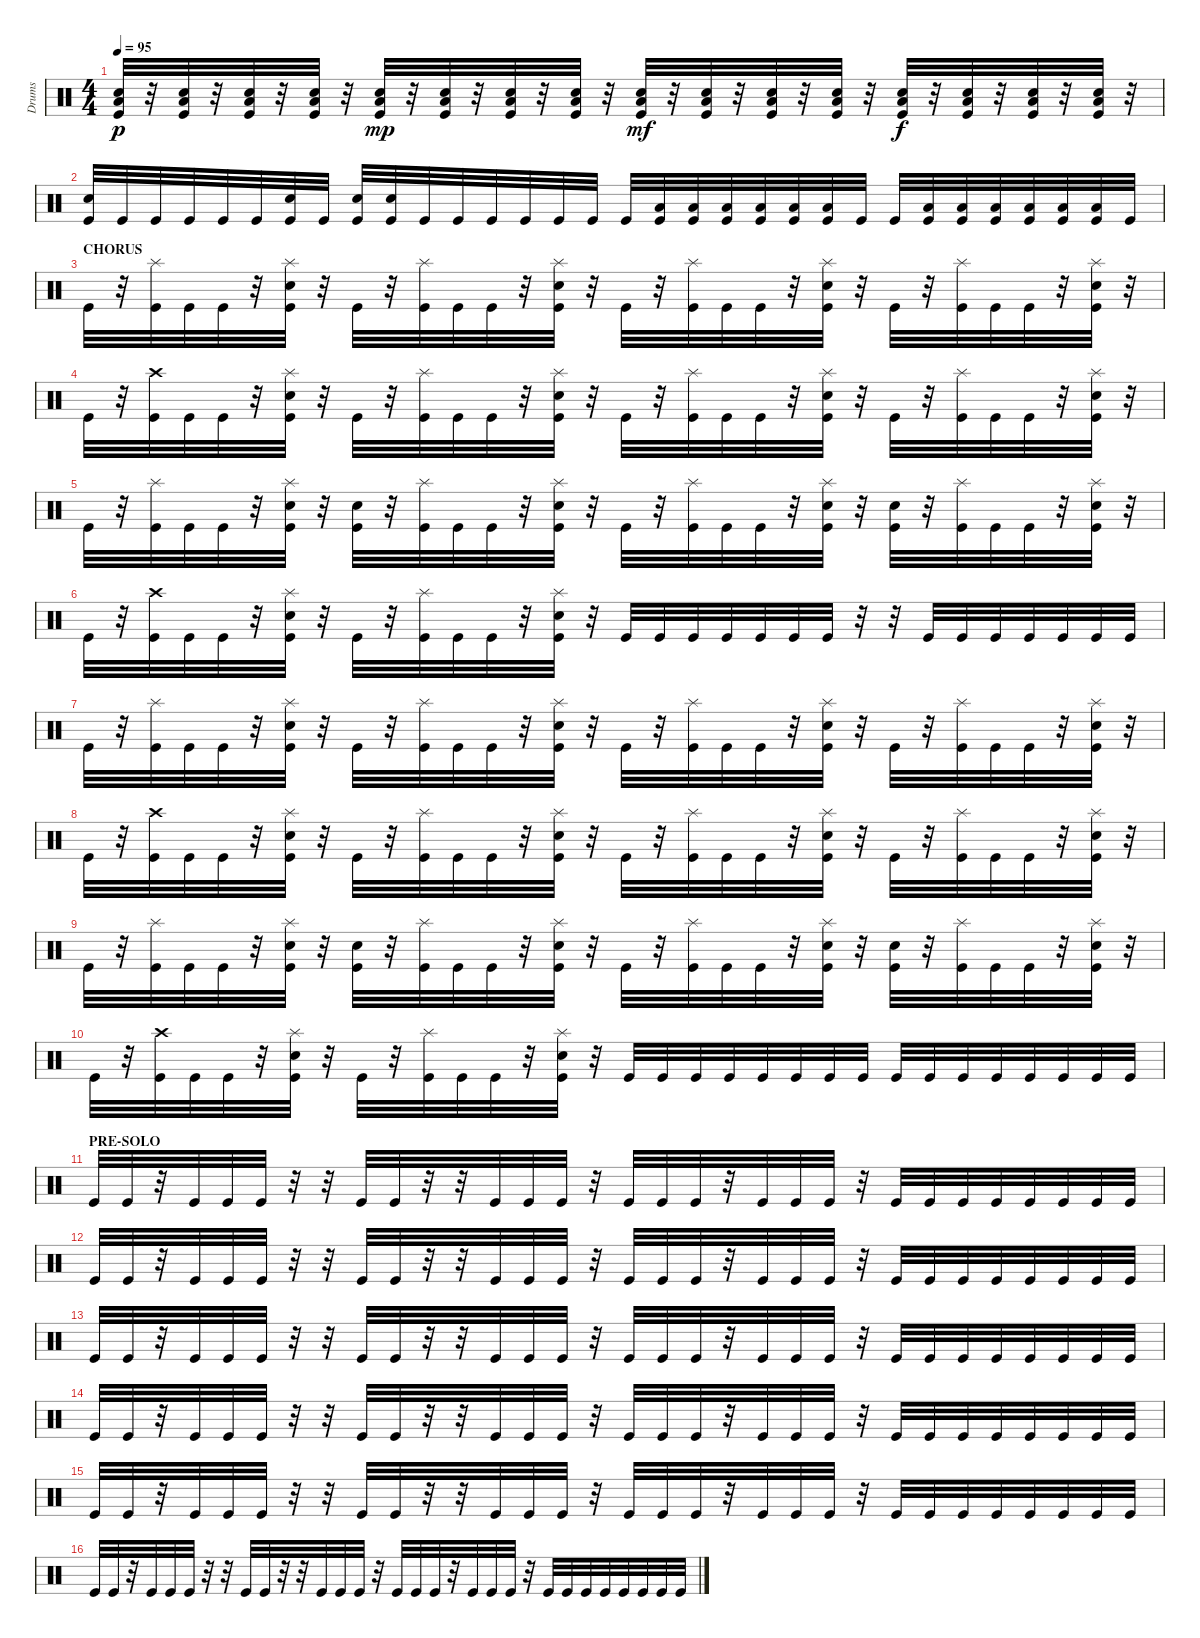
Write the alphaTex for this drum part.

\track ("Drums" "Drums") {instrument percussion}
\staff {score}
\articulation defaults
\ts (4 4)
\tempo 95
\clef neutral
\ks c
("Low Tom (hit)" "Snare (hit) 2" "Kick (hit)").32{dy p} r.32 ("Low Tom (hit)" "Snare (hit) 2" "Kick (hit)").32 r.32 ("Low Tom (hit)" "Snare (hit) 2" "Kick (hit)").32 r.32 ("Low Tom (hit)" "Snare (hit) 2" "Kick (hit)").32 r.32 ("Low Tom (hit)" "Snare (hit) 2" "Kick (hit)").32{dy mp} r.32 ("Low Tom (hit)" "Snare (hit) 2" "Kick (hit)").32 r.32 ("Low Tom (hit)" "Snare (hit) 2" "Kick (hit)").32 r.32 ("Low Tom (hit)" "Snare (hit) 2" "Kick (hit)").32 r.32 ("Low Tom (hit)" "Snare (hit) 2" "Kick (hit)").32{dy mf} r.32 ("Low Tom (hit)" "Snare (hit) 2" "Kick (hit)").32 r.32 ("Low Tom (hit)" "Snare (hit) 2" "Kick (hit)").32 r.32 ("Low Tom (hit)" "Snare (hit) 2" "Kick (hit)").32 r.32 ("Low Tom (hit)" "Snare (hit) 2" "Kick (hit)").32{dy f} r.32 ("Low Tom (hit)" "Snare (hit) 2" "Kick (hit)").32 r.32 ("Low Tom (hit)" "Snare (hit) 2" "Kick (hit)").32 r.32 ("Low Tom (hit)" "Snare (hit) 2" "Kick (hit)").32 r.32 |
("Snare (hit) 2" "Kick (hit)").32 "Kick (hit)".32 "Kick (hit)".32 "Kick (hit)".32 "Kick (hit)".32 "Kick (hit)".32 ("Snare (hit) 2" "Kick (hit)").32 "Kick (hit)".32 ("Snare (hit) 2" "Kick (hit)").32 ("Snare (hit) 2" "Kick (hit)").32 "Kick (hit)".32 "Kick (hit)".32 "Kick (hit)".32 "Kick (hit)".32 "Kick (hit)".32 "Kick (hit)".32 "Kick (hit)".32 ("Low Tom (hit)" "Kick (hit)").32 ("Low Tom (hit)" "Kick (hit)").32 ("Low Tom (hit)" "Kick (hit)").32 ("Low Tom (hit)" "Kick (hit)").32 ("Low Tom (hit)" "Kick (hit)").32 ("Low Tom (hit)" "Kick (hit)").32 "Kick (hit)".32 "Kick (hit)".32 ("Low Tom (hit)" "Kick (hit)").32 ("Low Tom (hit)" "Kick (hit)").32 ("Low Tom (hit)" "Kick (hit)").32 ("Low Tom (hit)" "Kick (hit)").32 ("Low Tom (hit)" "Kick (hit)").32 ("Low Tom (hit)" "Kick (hit)").32 "Kick (hit)".32 |
\section ("" "CHORUS")
"Kick (hit)".32 r.32 ("Splash (hit)" "Kick (hit)").32 "Kick (hit)".32 "Kick (hit)".32 r.32 ("Splash (hit)" "Snare (hit) 2" "Kick (hit)").32 r.32 "Kick (hit)".32 r.32 ("Splash (hit)" "Kick (hit)").32 "Kick (hit)".32 "Kick (hit)".32 r.32 ("Splash (hit)" "Snare (hit) 2" "Kick (hit)").32 r.32 "Kick (hit)".32 r.32 ("Splash (hit)" "Kick (hit)").32 "Kick (hit)".32 "Kick (hit)".32 r.32 ("Splash (hit)" "Snare (hit) 2" "Kick (hit)").32 r.32 "Kick (hit)".32 r.32 ("Splash (hit)" "Kick (hit)").32 "Kick (hit)".32 "Kick (hit)".32 r.32 ("Splash (hit)" "Snare (hit) 2" "Kick (hit)").32 r.32 |
"Kick (hit)".32 r.32 ("Crash high (hit)" "Kick (hit)").32 "Kick (hit)".32 "Kick (hit)".32 r.32 ("Splash (hit)" "Snare (hit) 2" "Kick (hit)").32 r.32 "Kick (hit)".32 r.32 ("Splash (hit)" "Kick (hit)").32 "Kick (hit)".32 "Kick (hit)".32 r.32 ("Splash (hit)" "Snare (hit) 2" "Kick (hit)").32 r.32 "Kick (hit)".32 r.32 ("Splash (hit)" "Kick (hit)").32 "Kick (hit)".32 "Kick (hit)".32 r.32 ("Splash (hit)" "Snare (hit) 2" "Kick (hit)").32 r.32 "Kick (hit)".32 r.32 ("Splash (hit)" "Kick (hit)").32 "Kick (hit)".32 "Kick (hit)".32 r.32 ("Splash (hit)" "Snare (hit) 2" "Kick (hit)").32 r.32 |
"Kick (hit)".32 r.32 ("Splash (hit)" "Kick (hit)").32 "Kick (hit)".32 "Kick (hit)".32 r.32 ("Splash (hit)" "Snare (hit) 2" "Kick (hit)").32 r.32 ("Snare (hit) 2" "Kick (hit)").32 r.32 ("Splash (hit)" "Kick (hit)").32 "Kick (hit)".32 "Kick (hit)".32 r.32 ("Splash (hit)" "Snare (hit) 2" "Kick (hit)").32 r.32 "Kick (hit)".32 r.32 ("Splash (hit)" "Kick (hit)").32 "Kick (hit)".32 "Kick (hit)".32 r.32 ("Splash (hit)" "Snare (hit) 2" "Kick (hit)").32 r.32 ("Snare (hit) 2" "Kick (hit)").32 r.32 ("Splash (hit)" "Kick (hit)").32 "Kick (hit)".32 "Kick (hit)".32 r.32 ("Splash (hit)" "Snare (hit) 2" "Kick (hit)").32 r.32 |
"Kick (hit)".32 r.32 ("Crash high (hit)" "Kick (hit)").32 "Kick (hit)".32 "Kick (hit)".32 r.32 ("Splash (hit)" "Snare (hit) 2" "Kick (hit)").32 r.32 "Kick (hit)".32 r.32 ("Splash (hit)" "Kick (hit)").32 "Kick (hit)".32 "Kick (hit)".32 r.32 ("Splash (hit)" "Snare (hit) 2" "Kick (hit)").32 r.32 "Kick (hit)".32 "Kick (hit)".32 "Kick (hit)".32 "Kick (hit)".32 "Kick (hit)".32 "Kick (hit)".32 "Kick (hit)".32 r.32 r.32 "Kick (hit)".32 "Kick (hit)".32 "Kick (hit)".32 "Kick (hit)".32 "Kick (hit)".32 "Kick (hit)".32 "Kick (hit)".32 |
"Kick (hit)".32 r.32 ("Splash (hit)" "Kick (hit)").32 "Kick (hit)".32 "Kick (hit)".32 r.32 ("Splash (hit)" "Snare (hit) 2" "Kick (hit)").32 r.32 "Kick (hit)".32 r.32 ("Splash (hit)" "Kick (hit)").32 "Kick (hit)".32 "Kick (hit)".32 r.32 ("Splash (hit)" "Snare (hit) 2" "Kick (hit)").32 r.32 "Kick (hit)".32 r.32 ("Splash (hit)" "Kick (hit)").32 "Kick (hit)".32 "Kick (hit)".32 r.32 ("Splash (hit)" "Snare (hit) 2" "Kick (hit)").32 r.32 "Kick (hit)".32 r.32 ("Splash (hit)" "Kick (hit)").32 "Kick (hit)".32 "Kick (hit)".32 r.32 ("Splash (hit)" "Snare (hit) 2" "Kick (hit)").32 r.32 |
"Kick (hit)".32 r.32 ("Crash high (hit)" "Kick (hit)").32 "Kick (hit)".32 "Kick (hit)".32 r.32 ("Splash (hit)" "Snare (hit) 2" "Kick (hit)").32 r.32 "Kick (hit)".32 r.32 ("Splash (hit)" "Kick (hit)").32 "Kick (hit)".32 "Kick (hit)".32 r.32 ("Splash (hit)" "Snare (hit) 2" "Kick (hit)").32 r.32 "Kick (hit)".32 r.32 ("Splash (hit)" "Kick (hit)").32 "Kick (hit)".32 "Kick (hit)".32 r.32 ("Splash (hit)" "Snare (hit) 2" "Kick (hit)").32 r.32 "Kick (hit)".32 r.32 ("Splash (hit)" "Kick (hit)").32 "Kick (hit)".32 "Kick (hit)".32 r.32 ("Splash (hit)" "Snare (hit) 2" "Kick (hit)").32 r.32 |
"Kick (hit)".32 r.32 ("Splash (hit)" "Kick (hit)").32 "Kick (hit)".32 "Kick (hit)".32 r.32 ("Splash (hit)" "Snare (hit) 2" "Kick (hit)").32 r.32 ("Snare (hit) 2" "Kick (hit)").32 r.32 ("Splash (hit)" "Kick (hit)").32 "Kick (hit)".32 "Kick (hit)".32 r.32 ("Splash (hit)" "Snare (hit) 2" "Kick (hit)").32 r.32 "Kick (hit)".32 r.32 ("Splash (hit)" "Kick (hit)").32 "Kick (hit)".32 "Kick (hit)".32 r.32 ("Splash (hit)" "Snare (hit) 2" "Kick (hit)").32 r.32 ("Snare (hit) 2" "Kick (hit)").32 r.32 ("Splash (hit)" "Kick (hit)").32 "Kick (hit)".32 "Kick (hit)".32 r.32 ("Splash (hit)" "Snare (hit) 2" "Kick (hit)").32 r.32 |
"Kick (hit)".32 r.32 ("Crash high (hit)" "Kick (hit)").32 "Kick (hit)".32 "Kick (hit)".32 r.32 ("Splash (hit)" "Snare (hit) 2" "Kick (hit)").32 r.32 "Kick (hit)".32 r.32 ("Splash (hit)" "Kick (hit)").32 "Kick (hit)".32 "Kick (hit)".32 r.32 ("Splash (hit)" "Snare (hit) 2" "Kick (hit)").32 r.32 "Kick (hit)".32 "Kick (hit)".32 "Kick (hit)".32 "Kick (hit)".32 "Kick (hit)".32 "Kick (hit)".32 "Kick (hit)".32 "Kick (hit)".32 "Kick (hit)".32 "Kick (hit)".32 "Kick (hit)".32 "Kick (hit)".32 "Kick (hit)".32 "Kick (hit)".32 "Kick (hit)".32 "Kick (hit)".32 |
\section ("" "PRE-SOLO")
"Kick (hit)".32 "Kick (hit)".32 r.32 "Kick (hit)".32 "Kick (hit)".32 "Kick (hit)".32 r.32 r.32 "Kick (hit)".32 "Kick (hit)".32 r.32 r.32 "Kick (hit)".32 "Kick (hit)".32 "Kick (hit)".32 r.32 "Kick (hit)".32 "Kick (hit)".32 "Kick (hit)".32 r.32 "Kick (hit)".32 "Kick (hit)".32 "Kick (hit)".32 r.32 "Kick (hit)".32 "Kick (hit)".32 "Kick (hit)".32 "Kick (hit)".32 "Kick (hit)".32 "Kick (hit)".32 "Kick (hit)".32 "Kick (hit)".32 |
"Kick (hit)".32 "Kick (hit)".32 r.32 "Kick (hit)".32 "Kick (hit)".32 "Kick (hit)".32 r.32 r.32 "Kick (hit)".32 "Kick (hit)".32 r.32 r.32 "Kick (hit)".32 "Kick (hit)".32 "Kick (hit)".32 r.32 "Kick (hit)".32 "Kick (hit)".32 "Kick (hit)".32 r.32 "Kick (hit)".32 "Kick (hit)".32 "Kick (hit)".32 r.32 "Kick (hit)".32 "Kick (hit)".32 "Kick (hit)".32 "Kick (hit)".32 "Kick (hit)".32 "Kick (hit)".32 "Kick (hit)".32 "Kick (hit)".32 |
"Kick (hit)".32 "Kick (hit)".32 r.32 "Kick (hit)".32 "Kick (hit)".32 "Kick (hit)".32 r.32 r.32 "Kick (hit)".32 "Kick (hit)".32 r.32 r.32 "Kick (hit)".32 "Kick (hit)".32 "Kick (hit)".32 r.32 "Kick (hit)".32 "Kick (hit)".32 "Kick (hit)".32 r.32 "Kick (hit)".32 "Kick (hit)".32 "Kick (hit)".32 r.32 "Kick (hit)".32 "Kick (hit)".32 "Kick (hit)".32 "Kick (hit)".32 "Kick (hit)".32 "Kick (hit)".32 "Kick (hit)".32 "Kick (hit)".32 |
"Kick (hit)".32 "Kick (hit)".32 r.32 "Kick (hit)".32 "Kick (hit)".32 "Kick (hit)".32 r.32 r.32 "Kick (hit)".32 "Kick (hit)".32 r.32 r.32 "Kick (hit)".32 "Kick (hit)".32 "Kick (hit)".32 r.32 "Kick (hit)".32 "Kick (hit)".32 "Kick (hit)".32 r.32 "Kick (hit)".32 "Kick (hit)".32 "Kick (hit)".32 r.32 "Kick (hit)".32 "Kick (hit)".32 "Kick (hit)".32 "Kick (hit)".32 "Kick (hit)".32 "Kick (hit)".32 "Kick (hit)".32 "Kick (hit)".32 |
"Kick (hit)".32 "Kick (hit)".32 r.32 "Kick (hit)".32 "Kick (hit)".32 "Kick (hit)".32 r.32 r.32 "Kick (hit)".32 "Kick (hit)".32 r.32 r.32 "Kick (hit)".32 "Kick (hit)".32 "Kick (hit)".32 r.32 "Kick (hit)".32 "Kick (hit)".32 "Kick (hit)".32 r.32 "Kick (hit)".32 "Kick (hit)".32 "Kick (hit)".32 r.32 "Kick (hit)".32 "Kick (hit)".32 "Kick (hit)".32 "Kick (hit)".32 "Kick (hit)".32 "Kick (hit)".32 "Kick (hit)".32 "Kick (hit)".32 |
"Kick (hit)".32 "Kick (hit)".32 r.32 "Kick (hit)".32 "Kick (hit)".32 "Kick (hit)".32 r.32 r.32 "Kick (hit)".32 "Kick (hit)".32 r.32 r.32 "Kick (hit)".32 "Kick (hit)".32 "Kick (hit)".32 r.32 "Kick (hit)".32 "Kick (hit)".32 "Kick (hit)".32 r.32 "Kick (hit)".32 "Kick (hit)".32 "Kick (hit)".32 r.32 "Kick (hit)".32 "Kick (hit)".32 "Kick (hit)".32 "Kick (hit)".32 "Kick (hit)".32 "Kick (hit)".32 "Kick (hit)".32 "Kick (hit)".32
